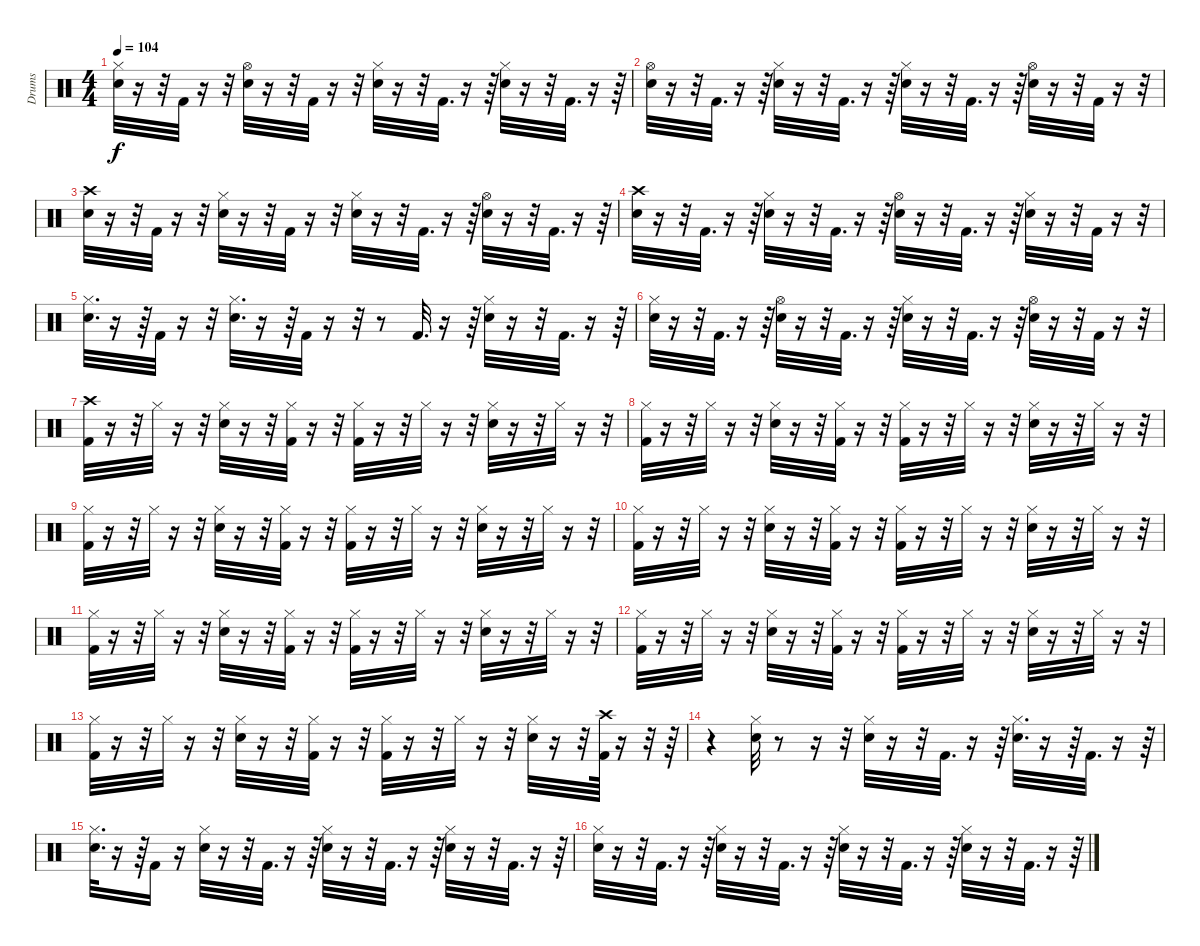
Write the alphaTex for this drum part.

\track ("Drums" "Drums") {instrument percussion}
\staff {score}
\articulation defaults
\ts (4 4)
\tempo 104
\clef neutral
\ks c
("Hi-Hat (closed)" "Snare (hit) 2").32{dy f} r.16 r.32 "Kick (hit) 2".32 r.16 r.32 ("Hi-Hat (open)" "Snare (hit) 2").32 r.16 r.32 "Kick (hit) 2".32 r.16 r.32 ("Hi-Hat (closed)" "Snare (hit) 2").32 r.16 r.32 "Kick (hit) 2".32{d} r.16 r.64 ("Hi-Hat (closed)" "Snare (hit) 2").32 r.16 r.32 "Kick (hit) 2".32{d} r.16 r.64 |
("Hi-Hat (open)" "Snare (hit) 2").32 r.16 r.32 "Kick (hit) 2".32{d} r.16 r.64 ("Hi-Hat (closed)" "Snare (hit) 2").32 r.16 r.32 "Kick (hit) 2".32{d} r.16 r.64 ("Hi-Hat (closed)" "Snare (hit) 2").32 r.16 r.32 "Kick (hit) 2".32{d} r.16 r.64 ("Hi-Hat (open)" "Snare (hit) 2").32 r.16 r.32 "Kick (hit) 2".32 r.16 r.32 |
("Crash high (hit)" "Snare (hit) 2").32 r.16 r.32 "Kick (hit) 2".32 r.16 r.32 ("Hi-Hat (closed)" "Snare (hit) 2").32 r.16 r.32 "Kick (hit) 2".32 r.16 r.32 ("Hi-Hat (closed)" "Snare (hit) 2").32 r.16 r.32 "Kick (hit) 2".32{d} r.16 r.64 ("Hi-Hat (open)" "Snare (hit) 2").32 r.16 r.32 "Kick (hit) 2".32{d} r.16 r.64 |
("Crash high (hit)" "Snare (hit) 2").32 r.16 r.32 "Kick (hit) 2".32{d} r.16 r.64 ("Hi-Hat (closed)" "Snare (hit) 2").32 r.16 r.32 "Kick (hit) 2".32{d} r.16 r.64 ("Hi-Hat (open)" "Snare (hit) 2").32 r.16 r.32 "Kick (hit) 2".32{d} r.16 r.64 ("Hi-Hat (closed)" "Snare (hit) 2").32 r.16 r.32 "Kick (hit) 2".32 r.16 r.32 |
("Hi-Hat (closed)" "Snare (hit) 2").32{d} r.16 r.64 "Kick (hit) 2".32 r.16 r.32 ("Hi-Hat (closed)" "Snare (hit) 2").32{d} r.16 r.64 "Kick (hit) 2".32 r.16 r.32 r.8 "Kick (hit) 2".32{d} r.16 r.64 ("Hi-Hat (closed)" "Snare (hit) 2").32 r.16 r.32 "Kick (hit) 2".32{d} r.16 r.64 |
("Hi-Hat (closed)" "Snare (hit) 2").32 r.16 r.32 "Kick (hit) 2".32{d} r.16 r.64 ("Hi-Hat (open)" "Snare (hit) 2").32 r.16 r.32 "Kick (hit) 2".32{d} r.16 r.64 ("Hi-Hat (closed)" "Snare (hit) 2").32 r.16 r.32 "Kick (hit) 2".32{d} r.16 r.64 ("Hi-Hat (open)" "Snare (hit) 2").32 r.16 r.32 "Kick (hit) 2".32 r.16 r.32 |
("Crash high (hit)" "Kick (hit) 2").32 r.16 r.32 "Hi-Hat (closed)".32 r.16 r.32 ("Hi-Hat (closed)" "Snare (hit) 2").32 r.16 r.32 ("Hi-Hat (closed)" "Kick (hit) 2").32 r.16 r.32 ("Hi-Hat (closed)" "Kick (hit) 2").32 r.16 r.32 "Hi-Hat (closed)".32 r.16 r.32 ("Hi-Hat (closed)" "Snare (hit) 2").32 r.16 r.32 "Hi-Hat (closed)".32 r.16 r.32 |
("Hi-Hat (closed)" "Kick (hit) 2").32 r.16 r.32 "Hi-Hat (closed)".32 r.16 r.32 ("Hi-Hat (closed)" "Snare (hit) 2").32 r.16 r.32 ("Hi-Hat (closed)" "Kick (hit) 2").32 r.16 r.32 ("Hi-Hat (closed)" "Kick (hit) 2").32 r.16 r.32 "Hi-Hat (closed)".32 r.16 r.32 ("Hi-Hat (closed)" "Snare (hit) 2").32 r.16 r.32 "Hi-Hat (closed)".32 r.16 r.32 |
("Hi-Hat (closed)" "Kick (hit) 2").32 r.16 r.32 "Hi-Hat (closed)".32 r.16 r.32 ("Hi-Hat (closed)" "Snare (hit) 2").32 r.16 r.32 ("Hi-Hat (closed)" "Kick (hit) 2").32 r.16 r.32 ("Hi-Hat (closed)" "Kick (hit) 2").32 r.16 r.32 "Hi-Hat (closed)".32 r.16 r.32 ("Hi-Hat (closed)" "Snare (hit) 2").32 r.16 r.32 "Hi-Hat (closed)".32 r.16 r.32 |
("Hi-Hat (closed)" "Kick (hit) 2").32 r.16 r.32 "Hi-Hat (closed)".32 r.16 r.32 ("Hi-Hat (closed)" "Snare (hit) 2").32 r.16 r.32 ("Hi-Hat (closed)" "Kick (hit) 2").32 r.16 r.32 ("Hi-Hat (closed)" "Kick (hit) 2").32 r.16 r.32 "Hi-Hat (closed)".32 r.16 r.32 ("Hi-Hat (closed)" "Snare (hit) 2").32 r.16 r.32 "Hi-Hat (closed)".32 r.16 r.32 |
("Hi-Hat (closed)" "Kick (hit) 2").32 r.16 r.32 "Hi-Hat (closed)".32 r.16 r.32 ("Hi-Hat (closed)" "Snare (hit) 2").32 r.16 r.32 ("Hi-Hat (closed)" "Kick (hit) 2").32 r.16 r.32 ("Hi-Hat (closed)" "Kick (hit) 2").32 r.16 r.32 "Hi-Hat (closed)".32 r.16 r.32 ("Hi-Hat (closed)" "Snare (hit) 2").32 r.16 r.32 "Hi-Hat (closed)".32 r.16 r.32 |
("Hi-Hat (closed)" "Kick (hit) 2").32 r.16 r.32 "Hi-Hat (closed)".32 r.16 r.32 ("Hi-Hat (closed)" "Snare (hit) 2").32 r.16 r.32 ("Hi-Hat (closed)" "Kick (hit) 2").32 r.16 r.32 ("Hi-Hat (closed)" "Kick (hit) 2").32 r.16 r.32 "Hi-Hat (closed)".32 r.16 r.32 ("Hi-Hat (closed)" "Snare (hit) 2").32 r.16 r.32 "Hi-Hat (closed)".32 r.16 r.32 |
("Hi-Hat (closed)" "Kick (hit) 2").32 r.16 r.32 "Hi-Hat (closed)".32 r.16 r.32 ("Hi-Hat (closed)" "Snare (hit) 2").32 r.16 r.32 ("Hi-Hat (closed)" "Kick (hit) 2").32 r.16 r.32 ("Hi-Hat (closed)" "Kick (hit) 2").32 r.16 r.32 "Hi-Hat (closed)".32 r.16 r.32 ("Hi-Hat (closed)" "Snare (hit) 2").32 r.16 r.32 ("Crash high (hit)" "Kick (hit) 2").64 r.16 r.32 r.64 |
r.4 ("Hi-Hat (closed)" "Snare (hit) 2").32 r.8 r.16 r.32 ("Hi-Hat (closed)" "Snare (hit) 2").32 r.16 r.32 "Kick (hit) 2".32{d} r.16 r.64 ("Hi-Hat (closed)" "Snare (hit) 2").32{d} r.16 r.64 "Kick (hit) 2".32{d} r.16 r.64 |
("Hi-Hat (closed)" "Snare (hit) 2").32{d} r.16 r.64 "Kick (hit) 2".16 r.16 ("Hi-Hat (closed)" "Snare (hit) 2").32 r.16 r.32 "Kick (hit) 2".32{d} r.16 r.64 ("Hi-Hat (closed)" "Snare (hit) 2").32 r.16 r.32 "Kick (hit) 2".32{d} r.16 r.64 ("Hi-Hat (closed)" "Snare (hit) 2").32 r.16 r.32 "Kick (hit) 2".32{d} r.16 r.64 |
("Hi-Hat (closed)" "Snare (hit) 2").32 r.16 r.32 "Kick (hit) 2".32{d} r.16 r.64 ("Hi-Hat (closed)" "Snare (hit) 2").32 r.16 r.32 "Kick (hit) 2".32{d} r.16 r.64 ("Hi-Hat (closed)" "Snare (hit) 2").32 r.16 r.32 "Kick (hit) 2".32{d} r.16 r.64 ("Hi-Hat (closed)" "Snare (hit) 2").32 r.16 r.32 "Kick (hit) 2".32{d} r.16 r.64
